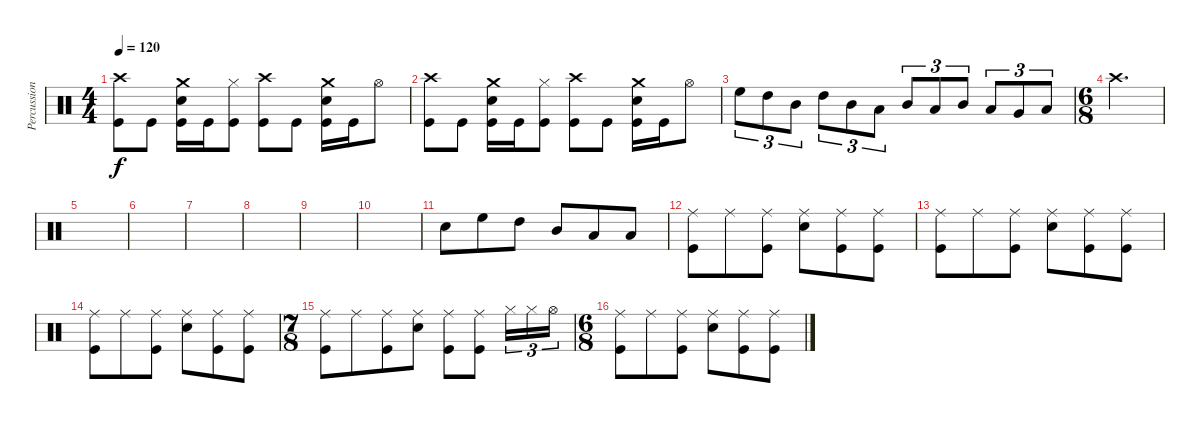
\track ("Percussion" "Percussion") {instrument percussion}
\staff {score}
\articulation defaults
\ts (4 4)
\tempo 120
\clef neutral
\ks c
("Kick (hit)" "Crash high (hit)").8{dy f} "Kick (hit)".8 ("Snare (hit) 2" "Crash medium (hit)" "Kick (hit)").16 "Kick (hit)".16 ("Kick (hit)" "Hi-Hat (closed)").8 ("Kick (hit)" "Crash high (hit)").8 "Kick (hit)".8 ("Snare (hit) 2" "Crash medium (hit)" "Kick (hit)").16 "Kick (hit)".16 "Hi-Hat (open)".8 |
("Kick (hit)" "Crash high (hit)").8 "Kick (hit)".8 ("Snare (hit) 2" "Crash medium (hit)" "Kick (hit)").16 "Kick (hit)".16 ("Kick (hit)" "Hi-Hat (closed)").8 ("Kick (hit)" "Crash high (hit)").8 "Kick (hit)".8 ("Snare (hit) 2" "Crash medium (hit)" "Kick (hit)").16 "Kick (hit)".16 "Hi-Hat (open)".8 |
"High Floor Tom (hit)".8{tu (3 2)} "High Tom (hit)".8{tu (3 2)} "Mid Tom (hit)".8{tu (3 2)} "High Tom (hit)".8{tu (3 2)} "Mid Tom (hit)".8{tu (3 2)} "Low Tom (hit)".8{tu (3 2)} "Mid Tom (hit)".8{tu (3 2)} "Low Tom (hit)".8{tu (3 2)} "Mid Tom (hit)".8{tu (3 2)} "Low Tom (hit)".8{tu (3 2)} "Very Low Tom (hit)".8{tu (3 2)} "Low Floor Tom (hit)".8{tu (3 2)} |
\ts (6 8)
"Crash high (hit)".2{d} |
|
|
|
|
|
|
"Snare (hit) 2".8 "High Floor Tom (hit)".8 "High Tom (hit)".8 "Mid Tom (hit)".8 "Low Tom (hit)".8 "Low Tom (hit)".8 |
("Ride (middle)" "Kick (hit)").8 "Ride (middle)".8 ("Ride (middle)" "Kick (hit)").8 ("Ride (middle)" "Snare (hit) 2").8 ("Ride (middle)" "Kick (hit)").8 ("Ride (middle)" "Kick (hit)").8 |
("Ride (middle)" "Kick (hit)").8 "Ride (middle)".8 ("Ride (middle)" "Kick (hit)").8 ("Ride (middle)" "Snare (hit) 2").8 ("Ride (middle)" "Kick (hit)").8 ("Ride (middle)" "Kick (hit)").8 |
("Ride (middle)" "Kick (hit)").8 "Ride (middle)".8 ("Ride (middle)" "Kick (hit)").8 ("Ride (middle)" "Snare (hit) 2").8 ("Ride (middle)" "Kick (hit)").8 ("Ride (middle)" "Kick (hit)").8 |
\ts (7 8)
("Ride (middle)" "Kick (hit)").8 "Ride (middle)".8 ("Ride (middle)" "Kick (hit)").8 ("Ride (middle)" "Snare (hit) 2").8 ("Ride (middle)" "Kick (hit)").8 ("Ride (middle)" "Kick (hit)").8 "Hi-Hat (closed)".16{tu (3 2)} "Hi-Hat (closed)".16{tu (3 2)} "Hi-Hat (open)".16{tu (3 2)} |
\ts (6 8)
("Ride (middle)" "Kick (hit)").8 "Ride (middle)".8 ("Ride (middle)" "Kick (hit)").8 ("Ride (middle)" "Snare (hit) 2").8 ("Ride (middle)" "Kick (hit)").8 ("Ride (middle)" "Kick (hit)").8
